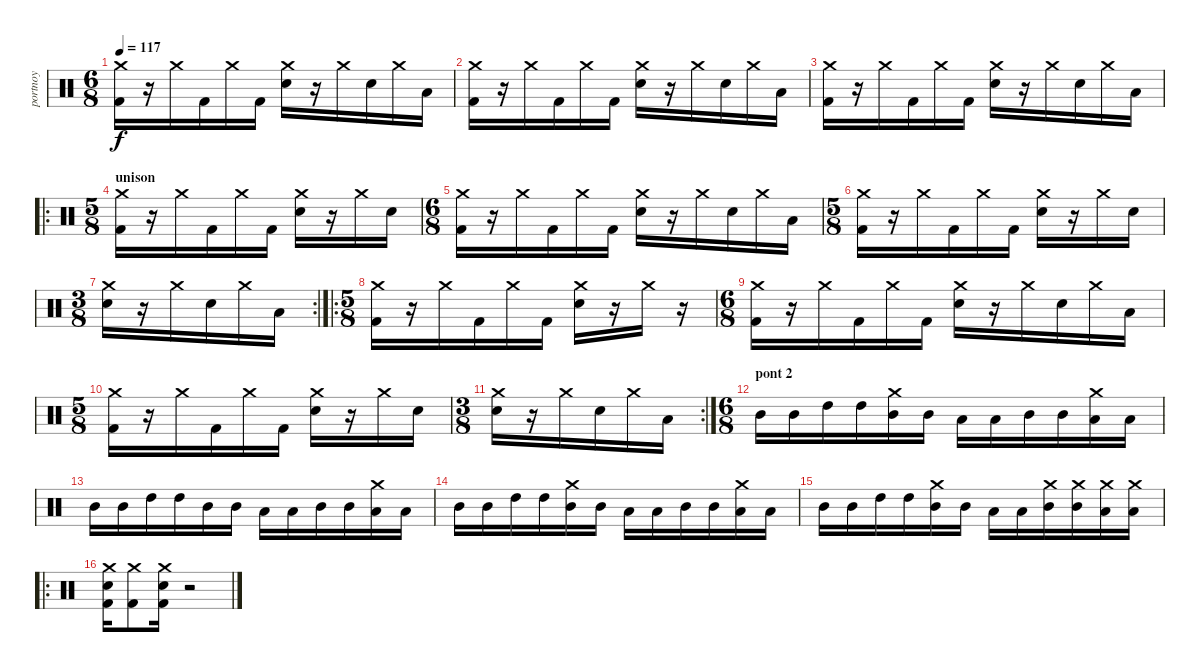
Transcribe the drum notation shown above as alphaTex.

\track ("portnoy" "portnoy") {instrument percussion}
\staff {score}
\articulation defaults
\ts (6 8)
\tempo 117
\clef neutral
\ks c
("Crash medium (hit)" "Kick (hit) 2").16{dy f} r.16 "Crash medium (hit)".16 "Kick (hit) 2".16 "Crash medium (hit)".16 "Kick (hit) 2".16 ("Crash medium (hit)" "Electric Snare (hit)").16 r.16 "Crash medium (hit)".16 "Electric Snare (hit)".16 "Crash medium (hit)".16 "Low Tom (hit)".16 |
("Crash medium (hit)" "Kick (hit) 2").16 r.16 "Crash medium (hit)".16 "Kick (hit) 2".16 "Crash medium (hit)".16 "Kick (hit) 2".16 ("Crash medium (hit)" "Electric Snare (hit)").16 r.16 "Crash medium (hit)".16 "Electric Snare (hit)".16 "Crash medium (hit)".16 "Low Tom (hit)".16 |
("Crash medium (hit)" "Kick (hit) 2").16 r.16 "Crash medium (hit)".16 "Kick (hit) 2".16 "Crash medium (hit)".16 "Kick (hit) 2".16 ("Crash medium (hit)" "Electric Snare (hit)").16 r.16 "Crash medium (hit)".16 "Electric Snare (hit)".16 "Crash medium (hit)".16 "Low Tom (hit)".16 |
\ro
\ts (5 8)
\section ("" "unison")
("Crash medium (hit)" "Kick (hit) 2").16 r.16 "Crash medium (hit)".16 "Kick (hit) 2".16 "Crash medium (hit)".16 "Kick (hit) 2".16 ("Crash medium (hit)" "Electric Snare (hit)").16 r.16 "Crash medium (hit)".16 "Electric Snare (hit)".16 |
\ts (6 8)
("Crash medium (hit)" "Kick (hit) 2").16 r.16 "Crash medium (hit)".16 "Kick (hit) 2".16 "Crash medium (hit)".16 "Kick (hit) 2".16 ("Crash medium (hit)" "Electric Snare (hit)").16 r.16 "Crash medium (hit)".16 "Electric Snare (hit)".16 "Crash medium (hit)".16 "Low Tom (hit)".16 |
\ts (5 8)
("Crash medium (hit)" "Kick (hit) 2").16 r.16 "Crash medium (hit)".16 "Kick (hit) 2".16 "Crash medium (hit)".16 "Kick (hit) 2".16 ("Crash medium (hit)" "Electric Snare (hit)").16 r.16 "Crash medium (hit)".16 "Electric Snare (hit)".16 |
\rc 2
\ts (3 8)
("Crash medium (hit)" "Electric Snare (hit)").16 r.16 "Crash medium (hit)".16 "Electric Snare (hit)".16 "Crash medium (hit)".16 "Low Tom (hit)".16 |
\ro
\ts (5 8)
("Crash medium (hit)" "Kick (hit) 2").16 r.16 "Crash medium (hit)".16 "Kick (hit) 2".16 "Crash medium (hit)".16 "Kick (hit) 2".16 ("Crash medium (hit)" "Electric Snare (hit)").16 r.16 "Crash medium (hit)".16 r.16 |
\ts (6 8)
("Crash medium (hit)" "Kick (hit) 2").16 r.16 "Crash medium (hit)".16 "Kick (hit) 2".16 "Crash medium (hit)".16 "Kick (hit) 2".16 ("Crash medium (hit)" "Electric Snare (hit)").16 r.16 "Crash medium (hit)".16 "Electric Snare (hit)".16 "Crash medium (hit)".16 "Low Tom (hit)".16 |
\ts (5 8)
("Crash medium (hit)" "Kick (hit) 2").16 r.16 "Crash medium (hit)".16 "Kick (hit) 2".16 "Crash medium (hit)".16 "Kick (hit) 2".16 ("Crash medium (hit)" "Electric Snare (hit)").16 r.16 "Crash medium (hit)".16 "Electric Snare (hit)".16 |
\rc 2
\ts (3 8)
("Crash medium (hit)" "Electric Snare (hit)").16 r.16 "Crash medium (hit)".16 "Electric Snare (hit)".16 "Crash medium (hit)".16 "Low Tom (hit)".16 |
\ts (6 8)
\section ("" "pont 2")
"Mid Tom (hit)".16 "Mid Tom (hit)".16 "High Tom (hit)".16 "High Tom (hit)".16 ("Crash medium (hit)" "Mid Tom (hit)").16 "Mid Tom (hit)".16 "Low Tom (hit)".16 "Low Tom (hit)".16 "Mid Tom (hit)".16 "Mid Tom (hit)".16 ("Crash medium (hit)" "Low Tom (hit)").16 "Low Tom (hit)".16 |
"Mid Tom (hit)".16 "Mid Tom (hit)".16 "High Tom (hit)".16 "High Tom (hit)".16 "Mid Tom (hit)".16 "Mid Tom (hit)".16 "Low Tom (hit)".16 "Low Tom (hit)".16 "Mid Tom (hit)".16 "Mid Tom (hit)".16 ("Crash medium (hit)" "Low Tom (hit)").16 "Low Tom (hit)".16 |
"Mid Tom (hit)".16 "Mid Tom (hit)".16 "High Tom (hit)".16 "High Tom (hit)".16 ("Crash medium (hit)" "Mid Tom (hit)").16 "Mid Tom (hit)".16 "Low Tom (hit)".16 "Low Tom (hit)".16 "Mid Tom (hit)".16 "Mid Tom (hit)".16 ("Crash medium (hit)" "Low Tom (hit)").16 "Low Tom (hit)".16 |
"Mid Tom (hit)".16 "Mid Tom (hit)".16 "High Tom (hit)".16 "High Tom (hit)".16 ("Crash medium (hit)" "Mid Tom (hit)").16 "Mid Tom (hit)".16 "Low Tom (hit)".16 "Low Tom (hit)".16 ("Crash medium (hit)" "Mid Tom (hit)").16 ("Crash medium (hit)" "Mid Tom (hit)").16 ("Crash medium (hit)" "Low Tom (hit)").16 ("Crash medium (hit)" "Low Tom (hit)").16 |
\ro
("Crash medium (hit)" "Kick (hit) 2" "Electric Snare (hit)").16 ("Crash medium (hit)" "Kick (hit) 2").8 ("Crash medium (hit)" "Kick (hit) 2" "Electric Snare (hit)").16 r.2
